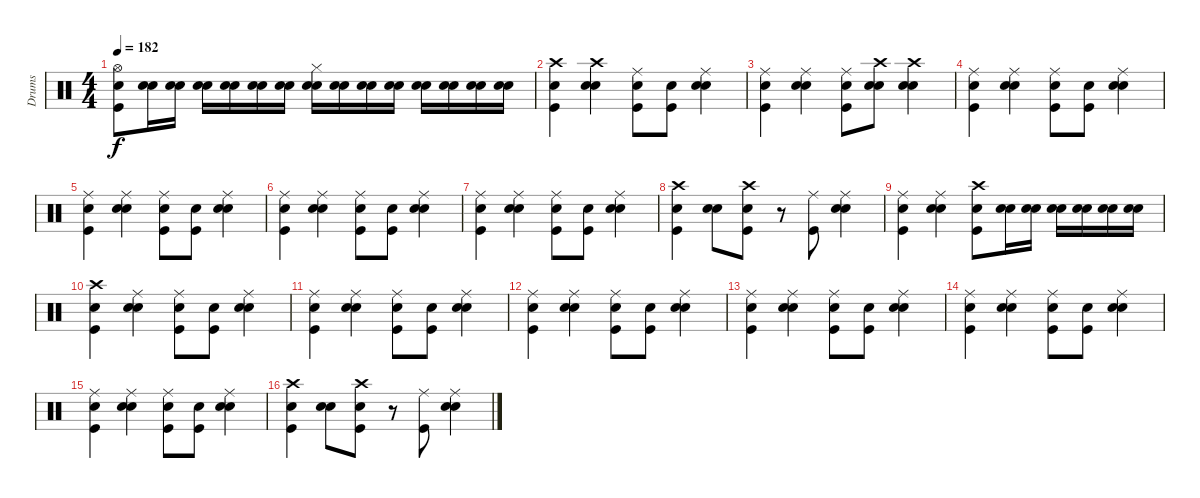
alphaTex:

\track ("Drums" "Drums") {instrument percussion}
\staff {score}
\articulation defaults
\ts (4 4)
\tempo 182
\clef neutral
\ks c
("Snare (hit)" "Kick (hit)" "Hi-Hat (open)").8{dy f} ("Snare (hit)" "Electric Snare (hit)").16 ("Snare (hit)" "Electric Snare (hit)").16 ("Snare (hit)" "Electric Snare (hit)").16 ("Snare (hit)" "Electric Snare (hit)").16 ("Snare (hit)" "Electric Snare (hit)").16 ("Snare (hit)" "Electric Snare (hit)").16 ("Snare (hit)" "Electric Snare (hit)" "Hi-Hat (closed)").16 ("Snare (hit)" "Electric Snare (hit)").16 ("Snare (hit)" "Electric Snare (hit)").16 ("Snare (hit)" "Electric Snare (hit)").16 ("Snare (hit)" "Electric Snare (hit)").16 ("Snare (hit)" "Electric Snare (hit)").16 ("Snare (hit)" "Electric Snare (hit)").16 ("Snare (hit)" "Electric Snare (hit)").16 |
("Snare (hit)" "Kick (hit)" "Crash high (hit)").4 ("Snare (hit)" "Electric Snare (hit)" "Crash high (hit)").4 ("Snare (hit)" "Kick (hit)" "Ride (middle)").8 ("Snare (hit)" "Kick (hit)").8 ("Snare (hit)" "Electric Snare (hit)" "Ride (middle)").4 |
("Snare (hit)" "Kick (hit)" "Ride (middle)").4 ("Snare (hit)" "Electric Snare (hit)" "Ride (middle)").4 ("Snare (hit)" "Kick (hit)" "Ride (middle)").8 ("Snare (hit)" "Electric Snare (hit)" "Crash high (hit)").8 ("Snare (hit)" "Electric Snare (hit)" "Crash high (hit)").4 |
("Snare (hit)" "Kick (hit)" "Ride (middle)").4 ("Snare (hit)" "Electric Snare (hit)" "Ride (middle)").4 ("Snare (hit)" "Kick (hit)" "Ride (middle)").8 ("Snare (hit)" "Kick (hit)").8 ("Snare (hit)" "Electric Snare (hit)" "Ride (middle)").4 |
("Snare (hit)" "Kick (hit)" "Ride (middle)").4 ("Snare (hit)" "Electric Snare (hit)" "Ride (middle)").4 ("Snare (hit)" "Kick (hit)" "Ride (middle)").8 ("Snare (hit)" "Kick (hit)").8 ("Snare (hit)" "Electric Snare (hit)" "Ride (middle)").4 |
("Snare (hit)" "Ride (middle)" "Kick (hit)").4 ("Snare (hit)" "Electric Snare (hit)" "Ride (middle)").4 ("Snare (hit)" "Kick (hit)" "Ride (middle)").8 ("Snare (hit)" "Kick (hit)").8 ("Snare (hit)" "Electric Snare (hit)" "Ride (middle)").4 |
("Snare (hit)" "Kick (hit)" "Ride (middle)").4 ("Snare (hit)" "Electric Snare (hit)" "Ride (middle)").4 ("Snare (hit)" "Ride (middle)" "Kick (hit)").8 ("Snare (hit)" "Kick (hit)").8 ("Snare (hit)" "Electric Snare (hit)" "Ride (middle)").4 |
("Snare (hit)" "Kick (hit)" "Crash high (hit)").4 ("Snare (hit)" "Electric Snare (hit)").8 ("Snare (hit)" "Kick (hit)" "Crash high (hit)").8 r.8 ("Kick (hit)" "Ride (middle)").8 ("Snare (hit)" "Electric Snare (hit)" "Ride (middle)").4 |
("Snare (hit)" "Kick (hit)" "Ride (middle)").4 ("Snare (hit)" "Electric Snare (hit)" "Ride (middle)").4 ("Snare (hit)" "Kick (hit)" "Crash high (hit)").8 ("Snare (hit)" "Electric Snare (hit)").16 ("Snare (hit)" "Electric Snare (hit)").16 ("Snare (hit)" "Electric Snare (hit)").16 ("Snare (hit)" "Electric Snare (hit)").16 ("Snare (hit)" "Electric Snare (hit)").16 ("Snare (hit)" "Electric Snare (hit)").16 |
("Snare (hit)" "Kick (hit)" "Crash high (hit)").4 ("Snare (hit)" "Electric Snare (hit)" "Ride (middle)").4 ("Snare (hit)" "Ride (middle)" "Kick (hit)").8 ("Snare (hit)" "Kick (hit)").8 ("Snare (hit)" "Electric Snare (hit)" "Ride (middle)").4 |
("Snare (hit)" "Kick (hit)" "Ride (middle)").4 ("Snare (hit)" "Electric Snare (hit)" "Ride (middle)").4 ("Snare (hit)" "Kick (hit)" "Ride (middle)").8 ("Snare (hit)" "Kick (hit)").8 ("Snare (hit)" "Electric Snare (hit)" "Ride (middle)").4 |
("Snare (hit)" "Kick (hit)" "Ride (middle)").4 ("Snare (hit)" "Electric Snare (hit)" "Ride (middle)").4 ("Snare (hit)" "Kick (hit)" "Ride (middle)").8 ("Snare (hit)" "Kick (hit)").8 ("Snare (hit)" "Electric Snare (hit)" "Ride (middle)").4 |
("Snare (hit)" "Kick (hit)" "Ride (middle)").4 ("Snare (hit)" "Electric Snare (hit)" "Ride (middle)").4 ("Snare (hit)" "Kick (hit)" "Ride (middle)").8 ("Snare (hit)" "Kick (hit)").8 ("Snare (hit)" "Electric Snare (hit)" "Ride (middle)").4 |
("Snare (hit)" "Ride (middle)" "Kick (hit)").4 ("Snare (hit)" "Electric Snare (hit)" "Ride (middle)").4 ("Snare (hit)" "Kick (hit)" "Ride (middle)").8 ("Snare (hit)" "Kick (hit)").8 ("Snare (hit)" "Electric Snare (hit)" "Ride (middle)").4 |
("Snare (hit)" "Kick (hit)" "Ride (middle)").4 ("Snare (hit)" "Electric Snare (hit)" "Ride (middle)").4 ("Snare (hit)" "Ride (middle)" "Kick (hit)").8 ("Snare (hit)" "Kick (hit)").8 ("Snare (hit)" "Electric Snare (hit)" "Ride (middle)").4 |
("Snare (hit)" "Kick (hit)" "Crash high (hit)").4 ("Snare (hit)" "Electric Snare (hit)").8 ("Snare (hit)" "Kick (hit)" "Crash high (hit)").8 r.8 ("Kick (hit)" "Ride (middle)").8 ("Snare (hit)" "Electric Snare (hit)" "Ride (middle)").4
